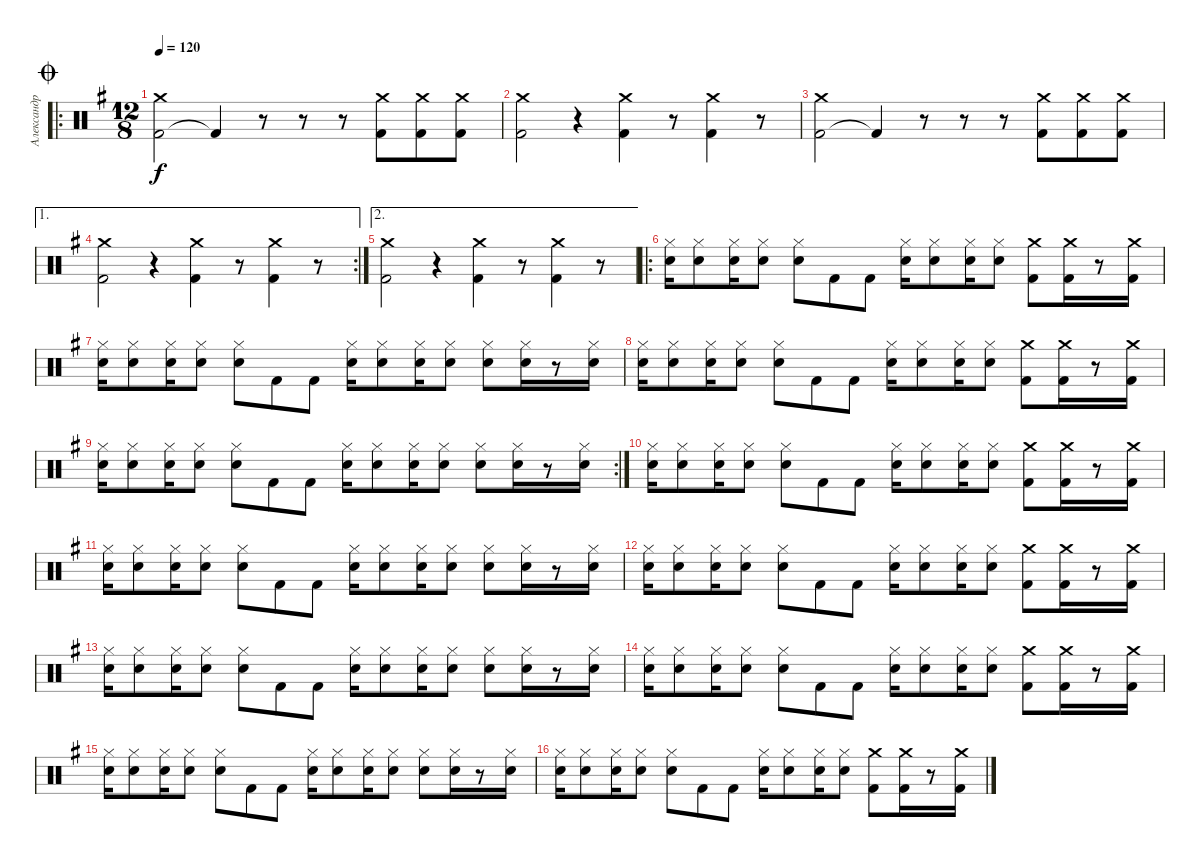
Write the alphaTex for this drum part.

\track ("Александр Манякин" "Александр ") {instrument percussion}
\staff {score}
\articulation defaults
\ro
\ts (12 8)
\jump coda
\tempo 120
\clef neutral
\ks g
("Kick (hit) 2" "Crash medium (hit)").2{dy f} "Kick (hit) 2"{t}.4 r.8 r.8 r.8 ("Kick (hit) 2" "Crash medium (hit)").8 ("Kick (hit) 2" "Crash medium (hit)").8 ("Kick (hit) 2" "Crash medium (hit)").8 |
("Kick (hit) 2" "Crash medium (hit)").2 r.4 ("Kick (hit) 2" "Crash medium (hit)").4 r.8 ("Kick (hit) 2" "Crash medium (hit)").4 r.8 |
("Kick (hit) 2" "Crash medium (hit)").2 "Kick (hit) 2"{t}.4 r.8 r.8 r.8 ("Kick (hit) 2" "Crash medium (hit)").8 ("Kick (hit) 2" "Crash medium (hit)").8 ("Kick (hit) 2" "Crash medium (hit)").8 |
\ae 1
\rc 2
("Kick (hit) 2" "Crash medium (hit)").2 r.4 ("Kick (hit) 2" "Crash medium (hit)").4 r.8 ("Kick (hit) 2" "Crash medium (hit)").4 r.8 |
\ae 2
("Kick (hit) 2" "Crash medium (hit)").2 r.4 ("Kick (hit) 2" "Crash medium (hit)").4 r.8 ("Kick (hit) 2" "Crash medium (hit)").4 r.8 |
\ro
("Snare (hit) 2" "Hi-Hat (closed)").16 ("Snare (hit) 2" "Hi-Hat (closed)").8 ("Snare (hit) 2" "Hi-Hat (closed)").16 ("Snare (hit) 2" "Hi-Hat (closed)").8 ("Snare (hit) 2" "Hi-Hat (closed)").8 "Kick (hit) 2".8 "Kick (hit) 2".8 ("Snare (hit) 2" "Hi-Hat (closed)").16 ("Snare (hit) 2" "Hi-Hat (closed)").8 ("Snare (hit) 2" "Hi-Hat (closed)").16 ("Snare (hit) 2" "Hi-Hat (closed)").8 ("Kick (hit) 2" "Crash medium (hit)").8 ("Kick (hit) 2" "Crash medium (hit)").16 r.8 ("Kick (hit) 2" "Crash medium (hit)").16 |
("Snare (hit) 2" "Hi-Hat (closed)").16 ("Snare (hit) 2" "Hi-Hat (closed)").8 ("Snare (hit) 2" "Hi-Hat (closed)").16 ("Snare (hit) 2" "Hi-Hat (closed)").8 ("Snare (hit) 2" "Hi-Hat (closed)").8 "Kick (hit) 2".8 "Kick (hit) 2".8 ("Snare (hit) 2" "Hi-Hat (closed)").16 ("Snare (hit) 2" "Hi-Hat (closed)").8 ("Snare (hit) 2" "Hi-Hat (closed)").16 ("Snare (hit) 2" "Hi-Hat (closed)").8 ("Snare (hit) 2" "Hi-Hat (closed)").8 ("Snare (hit) 2" "Hi-Hat (closed)").16 r.8 ("Snare (hit) 2" "Hi-Hat (closed)").16 |
("Snare (hit) 2" "Hi-Hat (closed)").16 ("Snare (hit) 2" "Hi-Hat (closed)").8 ("Snare (hit) 2" "Hi-Hat (closed)").16 ("Snare (hit) 2" "Hi-Hat (closed)").8 ("Snare (hit) 2" "Hi-Hat (closed)").8 "Kick (hit) 2".8 "Kick (hit) 2".8 ("Snare (hit) 2" "Hi-Hat (closed)").16 ("Snare (hit) 2" "Hi-Hat (closed)").8 ("Snare (hit) 2" "Hi-Hat (closed)").16 ("Snare (hit) 2" "Hi-Hat (closed)").8 ("Kick (hit) 2" "Crash medium (hit)").8 ("Kick (hit) 2" "Crash medium (hit)").16 r.8 ("Kick (hit) 2" "Crash medium (hit)").16 |
\rc 2
("Snare (hit) 2" "Hi-Hat (closed)").16 ("Snare (hit) 2" "Hi-Hat (closed)").8 ("Snare (hit) 2" "Hi-Hat (closed)").16 ("Snare (hit) 2" "Hi-Hat (closed)").8 ("Snare (hit) 2" "Hi-Hat (closed)").8 "Kick (hit) 2".8 "Kick (hit) 2".8 ("Snare (hit) 2" "Hi-Hat (closed)").16 ("Snare (hit) 2" "Hi-Hat (closed)").8 ("Snare (hit) 2" "Hi-Hat (closed)").16 ("Snare (hit) 2" "Hi-Hat (closed)").8 ("Snare (hit) 2" "Hi-Hat (closed)").8 ("Snare (hit) 2" "Hi-Hat (closed)").16 r.8 ("Snare (hit) 2" "Hi-Hat (closed)").16 |
("Snare (hit) 2" "Hi-Hat (closed)").16 ("Snare (hit) 2" "Hi-Hat (closed)").8 ("Snare (hit) 2" "Hi-Hat (closed)").16 ("Snare (hit) 2" "Hi-Hat (closed)").8 ("Snare (hit) 2" "Hi-Hat (closed)").8 "Kick (hit) 2".8 "Kick (hit) 2".8 ("Snare (hit) 2" "Hi-Hat (closed)").16 ("Snare (hit) 2" "Hi-Hat (closed)").8 ("Snare (hit) 2" "Hi-Hat (closed)").16 ("Snare (hit) 2" "Hi-Hat (closed)").8 ("Kick (hit) 2" "Crash medium (hit)").8 ("Kick (hit) 2" "Crash medium (hit)").16 r.8 ("Kick (hit) 2" "Crash medium (hit)").16 |
("Snare (hit) 2" "Hi-Hat (closed)").16 ("Snare (hit) 2" "Hi-Hat (closed)").8 ("Snare (hit) 2" "Hi-Hat (closed)").16 ("Snare (hit) 2" "Hi-Hat (closed)").8 ("Snare (hit) 2" "Hi-Hat (closed)").8 "Kick (hit) 2".8 "Kick (hit) 2".8 ("Snare (hit) 2" "Hi-Hat (closed)").16 ("Snare (hit) 2" "Hi-Hat (closed)").8 ("Snare (hit) 2" "Hi-Hat (closed)").16 ("Snare (hit) 2" "Hi-Hat (closed)").8 ("Snare (hit) 2" "Hi-Hat (closed)").8 ("Snare (hit) 2" "Hi-Hat (closed)").16 r.8 ("Snare (hit) 2" "Hi-Hat (closed)").16 |
("Snare (hit) 2" "Hi-Hat (closed)").16 ("Snare (hit) 2" "Hi-Hat (closed)").8 ("Snare (hit) 2" "Hi-Hat (closed)").16 ("Snare (hit) 2" "Hi-Hat (closed)").8 ("Snare (hit) 2" "Hi-Hat (closed)").8 "Kick (hit) 2".8 "Kick (hit) 2".8 ("Snare (hit) 2" "Hi-Hat (closed)").16 ("Snare (hit) 2" "Hi-Hat (closed)").8 ("Snare (hit) 2" "Hi-Hat (closed)").16 ("Snare (hit) 2" "Hi-Hat (closed)").8 ("Kick (hit) 2" "Crash medium (hit)").8 ("Kick (hit) 2" "Crash medium (hit)").16 r.8 ("Kick (hit) 2" "Crash medium (hit)").16 |
("Snare (hit) 2" "Hi-Hat (closed)").16 ("Snare (hit) 2" "Hi-Hat (closed)").8 ("Snare (hit) 2" "Hi-Hat (closed)").16 ("Snare (hit) 2" "Hi-Hat (closed)").8 ("Snare (hit) 2" "Hi-Hat (closed)").8 "Kick (hit) 2".8 "Kick (hit) 2".8 ("Snare (hit) 2" "Hi-Hat (closed)").16 ("Snare (hit) 2" "Hi-Hat (closed)").8 ("Snare (hit) 2" "Hi-Hat (closed)").16 ("Snare (hit) 2" "Hi-Hat (closed)").8 ("Snare (hit) 2" "Hi-Hat (closed)").8 ("Snare (hit) 2" "Hi-Hat (closed)").16 r.8 ("Snare (hit) 2" "Hi-Hat (closed)").16 |
("Snare (hit) 2" "Hi-Hat (closed)").16 ("Snare (hit) 2" "Hi-Hat (closed)").8 ("Snare (hit) 2" "Hi-Hat (closed)").16 ("Snare (hit) 2" "Hi-Hat (closed)").8 ("Snare (hit) 2" "Hi-Hat (closed)").8 "Kick (hit) 2".8 "Kick (hit) 2".8 ("Snare (hit) 2" "Hi-Hat (closed)").16 ("Snare (hit) 2" "Hi-Hat (closed)").8 ("Snare (hit) 2" "Hi-Hat (closed)").16 ("Snare (hit) 2" "Hi-Hat (closed)").8 ("Kick (hit) 2" "Crash medium (hit)").8 ("Kick (hit) 2" "Crash medium (hit)").16 r.8 ("Kick (hit) 2" "Crash medium (hit)").16 |
("Snare (hit) 2" "Hi-Hat (closed)").16 ("Snare (hit) 2" "Hi-Hat (closed)").8 ("Snare (hit) 2" "Hi-Hat (closed)").16 ("Snare (hit) 2" "Hi-Hat (closed)").8 ("Snare (hit) 2" "Hi-Hat (closed)").8 "Kick (hit) 2".8 "Kick (hit) 2".8 ("Snare (hit) 2" "Hi-Hat (closed)").16 ("Snare (hit) 2" "Hi-Hat (closed)").8 ("Snare (hit) 2" "Hi-Hat (closed)").16 ("Snare (hit) 2" "Hi-Hat (closed)").8 ("Snare (hit) 2" "Hi-Hat (closed)").8 ("Snare (hit) 2" "Hi-Hat (closed)").16 r.8 ("Snare (hit) 2" "Hi-Hat (closed)").16 |
("Snare (hit) 2" "Hi-Hat (closed)").16 ("Snare (hit) 2" "Hi-Hat (closed)").8 ("Snare (hit) 2" "Hi-Hat (closed)").16 ("Snare (hit) 2" "Hi-Hat (closed)").8 ("Snare (hit) 2" "Hi-Hat (closed)").8 "Kick (hit) 2".8 "Kick (hit) 2".8 ("Snare (hit) 2" "Hi-Hat (closed)").16 ("Snare (hit) 2" "Hi-Hat (closed)").8 ("Snare (hit) 2" "Hi-Hat (closed)").16 ("Snare (hit) 2" "Hi-Hat (closed)").8 ("Kick (hit) 2" "Crash medium (hit)").8 ("Kick (hit) 2" "Crash medium (hit)").16 r.8 ("Kick (hit) 2" "Crash medium (hit)").16
